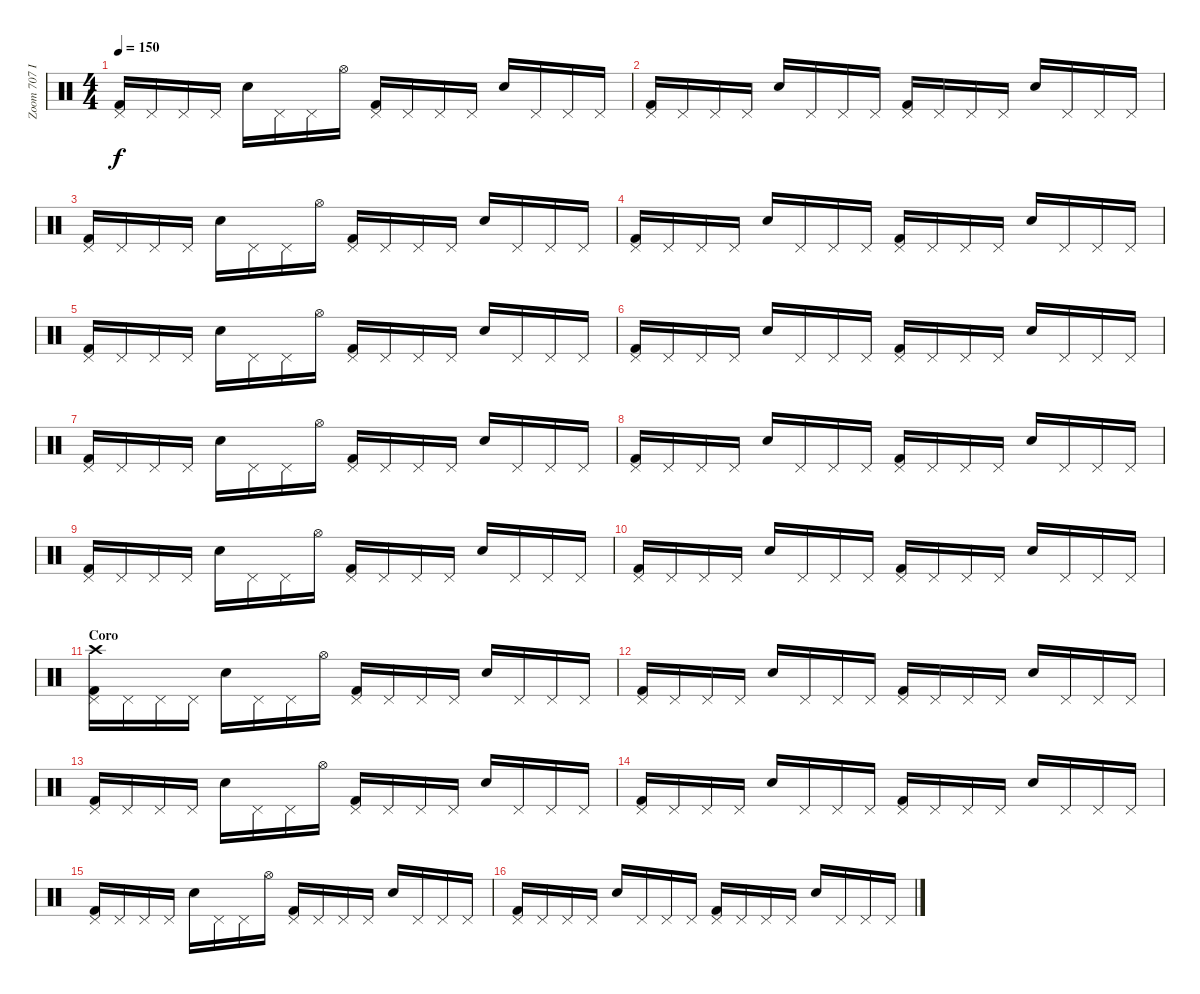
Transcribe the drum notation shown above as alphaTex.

\track ("Zoom 707 II" "Zoom 707 I") {instrument percussion}
\staff {score}
\articulation defaults
\ts (4 4)
\tempo 150
\clef neutral
\ks c
("Pedal Hi-Hat (hit)" "Kick (hit) 2").16{dy f} "Pedal Hi-Hat (hit)".16 "Pedal Hi-Hat (hit)".16 "Pedal Hi-Hat (hit)".16 "Snare (hit) 2".16 "Pedal Hi-Hat (hit)".16 "Pedal Hi-Hat (hit)".16 "Hi-Hat (open)".16 ("Pedal Hi-Hat (hit)" "Kick (hit) 2").16 "Pedal Hi-Hat (hit)".16 "Pedal Hi-Hat (hit)".16 "Pedal Hi-Hat (hit)".16 "Snare (hit) 2".16 "Pedal Hi-Hat (hit)".16 "Pedal Hi-Hat (hit)".16 "Pedal Hi-Hat (hit)".16 |
("Pedal Hi-Hat (hit)" "Kick (hit) 2").16 "Pedal Hi-Hat (hit)".16 "Pedal Hi-Hat (hit)".16 "Pedal Hi-Hat (hit)".16 "Snare (hit) 2".16 "Pedal Hi-Hat (hit)".16 "Pedal Hi-Hat (hit)".16 "Pedal Hi-Hat (hit)".16 ("Pedal Hi-Hat (hit)" "Kick (hit) 2").16 "Pedal Hi-Hat (hit)".16 "Pedal Hi-Hat (hit)".16 "Pedal Hi-Hat (hit)".16 "Snare (hit) 2".16 "Pedal Hi-Hat (hit)".16 "Pedal Hi-Hat (hit)".16 "Pedal Hi-Hat (hit)".16 |
("Pedal Hi-Hat (hit)" "Kick (hit) 2").16 "Pedal Hi-Hat (hit)".16 "Pedal Hi-Hat (hit)".16 "Pedal Hi-Hat (hit)".16 "Snare (hit) 2".16 "Pedal Hi-Hat (hit)".16 "Pedal Hi-Hat (hit)".16 "Hi-Hat (open)".16 ("Pedal Hi-Hat (hit)" "Kick (hit) 2").16 "Pedal Hi-Hat (hit)".16 "Pedal Hi-Hat (hit)".16 "Pedal Hi-Hat (hit)".16 "Snare (hit) 2".16 "Pedal Hi-Hat (hit)".16 "Pedal Hi-Hat (hit)".16 "Pedal Hi-Hat (hit)".16 |
("Pedal Hi-Hat (hit)" "Kick (hit) 2").16 "Pedal Hi-Hat (hit)".16 "Pedal Hi-Hat (hit)".16 "Pedal Hi-Hat (hit)".16 "Snare (hit) 2".16 "Pedal Hi-Hat (hit)".16 "Pedal Hi-Hat (hit)".16 "Pedal Hi-Hat (hit)".16 ("Pedal Hi-Hat (hit)" "Kick (hit) 2").16 "Pedal Hi-Hat (hit)".16 "Pedal Hi-Hat (hit)".16 "Pedal Hi-Hat (hit)".16 "Snare (hit) 2".16 "Pedal Hi-Hat (hit)".16 "Pedal Hi-Hat (hit)".16 "Pedal Hi-Hat (hit)".16 |
("Pedal Hi-Hat (hit)" "Kick (hit) 2").16 "Pedal Hi-Hat (hit)".16 "Pedal Hi-Hat (hit)".16 "Pedal Hi-Hat (hit)".16 "Snare (hit) 2".16 "Pedal Hi-Hat (hit)".16 "Pedal Hi-Hat (hit)".16 "Hi-Hat (open)".16 ("Pedal Hi-Hat (hit)" "Kick (hit) 2").16 "Pedal Hi-Hat (hit)".16 "Pedal Hi-Hat (hit)".16 "Pedal Hi-Hat (hit)".16 "Snare (hit) 2".16 "Pedal Hi-Hat (hit)".16 "Pedal Hi-Hat (hit)".16 "Pedal Hi-Hat (hit)".16 |
("Pedal Hi-Hat (hit)" "Kick (hit) 2").16 "Pedal Hi-Hat (hit)".16 "Pedal Hi-Hat (hit)".16 "Pedal Hi-Hat (hit)".16 "Snare (hit) 2".16 "Pedal Hi-Hat (hit)".16 "Pedal Hi-Hat (hit)".16 "Pedal Hi-Hat (hit)".16 ("Pedal Hi-Hat (hit)" "Kick (hit) 2").16 "Pedal Hi-Hat (hit)".16 "Pedal Hi-Hat (hit)".16 "Pedal Hi-Hat (hit)".16 "Snare (hit) 2".16 "Pedal Hi-Hat (hit)".16 "Pedal Hi-Hat (hit)".16 "Pedal Hi-Hat (hit)".16 |
("Pedal Hi-Hat (hit)" "Kick (hit) 2").16 "Pedal Hi-Hat (hit)".16 "Pedal Hi-Hat (hit)".16 "Pedal Hi-Hat (hit)".16 "Snare (hit) 2".16 "Pedal Hi-Hat (hit)".16 "Pedal Hi-Hat (hit)".16 "Hi-Hat (open)".16 ("Pedal Hi-Hat (hit)" "Kick (hit) 2").16 "Pedal Hi-Hat (hit)".16 "Pedal Hi-Hat (hit)".16 "Pedal Hi-Hat (hit)".16 "Snare (hit) 2".16 "Pedal Hi-Hat (hit)".16 "Pedal Hi-Hat (hit)".16 "Pedal Hi-Hat (hit)".16 |
("Pedal Hi-Hat (hit)" "Kick (hit) 2").16 "Pedal Hi-Hat (hit)".16 "Pedal Hi-Hat (hit)".16 "Pedal Hi-Hat (hit)".16 "Snare (hit) 2".16 "Pedal Hi-Hat (hit)".16 "Pedal Hi-Hat (hit)".16 "Pedal Hi-Hat (hit)".16 ("Pedal Hi-Hat (hit)" "Kick (hit) 2").16 "Pedal Hi-Hat (hit)".16 "Pedal Hi-Hat (hit)".16 "Pedal Hi-Hat (hit)".16 "Snare (hit) 2".16 "Pedal Hi-Hat (hit)".16 "Pedal Hi-Hat (hit)".16 "Pedal Hi-Hat (hit)".16 |
("Pedal Hi-Hat (hit)" "Kick (hit) 2").16 "Pedal Hi-Hat (hit)".16 "Pedal Hi-Hat (hit)".16 "Pedal Hi-Hat (hit)".16 "Snare (hit) 2".16 "Pedal Hi-Hat (hit)".16 "Pedal Hi-Hat (hit)".16 "Hi-Hat (open)".16 ("Pedal Hi-Hat (hit)" "Kick (hit) 2").16 "Pedal Hi-Hat (hit)".16 "Pedal Hi-Hat (hit)".16 "Pedal Hi-Hat (hit)".16 "Snare (hit) 2".16 "Pedal Hi-Hat (hit)".16 "Pedal Hi-Hat (hit)".16 "Pedal Hi-Hat (hit)".16 |
("Pedal Hi-Hat (hit)" "Kick (hit) 2").16 "Pedal Hi-Hat (hit)".16 "Pedal Hi-Hat (hit)".16 "Pedal Hi-Hat (hit)".16 "Snare (hit) 2".16 "Pedal Hi-Hat (hit)".16 "Pedal Hi-Hat (hit)".16 "Pedal Hi-Hat (hit)".16 ("Pedal Hi-Hat (hit)" "Kick (hit) 2").16 "Pedal Hi-Hat (hit)".16 "Pedal Hi-Hat (hit)".16 "Pedal Hi-Hat (hit)".16 "Snare (hit) 2".16 "Pedal Hi-Hat (hit)".16 "Pedal Hi-Hat (hit)".16 "Pedal Hi-Hat (hit)".16 |
\section ("" "Coro")
("Crash high (hit)" "Pedal Hi-Hat (hit)" "Kick (hit) 2").16 "Pedal Hi-Hat (hit)".16 "Pedal Hi-Hat (hit)".16 "Pedal Hi-Hat (hit)".16 "Snare (hit) 2".16 "Pedal Hi-Hat (hit)".16 "Pedal Hi-Hat (hit)".16 "Hi-Hat (open)".16 ("Pedal Hi-Hat (hit)" "Kick (hit) 2").16 "Pedal Hi-Hat (hit)".16 "Pedal Hi-Hat (hit)".16 "Pedal Hi-Hat (hit)".16 "Snare (hit) 2".16 "Pedal Hi-Hat (hit)".16 "Pedal Hi-Hat (hit)".16 "Pedal Hi-Hat (hit)".16 |
("Pedal Hi-Hat (hit)" "Kick (hit) 2").16 "Pedal Hi-Hat (hit)".16 "Pedal Hi-Hat (hit)".16 "Pedal Hi-Hat (hit)".16 "Snare (hit) 2".16 "Pedal Hi-Hat (hit)".16 "Pedal Hi-Hat (hit)".16 "Pedal Hi-Hat (hit)".16 ("Pedal Hi-Hat (hit)" "Kick (hit) 2").16 "Pedal Hi-Hat (hit)".16 "Pedal Hi-Hat (hit)".16 "Pedal Hi-Hat (hit)".16 "Snare (hit) 2".16 "Pedal Hi-Hat (hit)".16 "Pedal Hi-Hat (hit)".16 "Pedal Hi-Hat (hit)".16 |
("Pedal Hi-Hat (hit)" "Kick (hit) 2").16 "Pedal Hi-Hat (hit)".16 "Pedal Hi-Hat (hit)".16 "Pedal Hi-Hat (hit)".16 "Snare (hit) 2".16 "Pedal Hi-Hat (hit)".16 "Pedal Hi-Hat (hit)".16 "Hi-Hat (open)".16 ("Pedal Hi-Hat (hit)" "Kick (hit) 2").16 "Pedal Hi-Hat (hit)".16 "Pedal Hi-Hat (hit)".16 "Pedal Hi-Hat (hit)".16 "Snare (hit) 2".16 "Pedal Hi-Hat (hit)".16 "Pedal Hi-Hat (hit)".16 "Pedal Hi-Hat (hit)".16 |
("Pedal Hi-Hat (hit)" "Kick (hit) 2").16 "Pedal Hi-Hat (hit)".16 "Pedal Hi-Hat (hit)".16 "Pedal Hi-Hat (hit)".16 "Snare (hit) 2".16 "Pedal Hi-Hat (hit)".16 "Pedal Hi-Hat (hit)".16 "Pedal Hi-Hat (hit)".16 ("Pedal Hi-Hat (hit)" "Kick (hit) 2").16 "Pedal Hi-Hat (hit)".16 "Pedal Hi-Hat (hit)".16 "Pedal Hi-Hat (hit)".16 "Snare (hit) 2".16 "Pedal Hi-Hat (hit)".16 "Pedal Hi-Hat (hit)".16 "Pedal Hi-Hat (hit)".16 |
("Pedal Hi-Hat (hit)" "Kick (hit) 2").16 "Pedal Hi-Hat (hit)".16 "Pedal Hi-Hat (hit)".16 "Pedal Hi-Hat (hit)".16 "Snare (hit) 2".16 "Pedal Hi-Hat (hit)".16 "Pedal Hi-Hat (hit)".16 "Hi-Hat (open)".16 ("Pedal Hi-Hat (hit)" "Kick (hit) 2").16 "Pedal Hi-Hat (hit)".16 "Pedal Hi-Hat (hit)".16 "Pedal Hi-Hat (hit)".16 "Snare (hit) 2".16 "Pedal Hi-Hat (hit)".16 "Pedal Hi-Hat (hit)".16 "Pedal Hi-Hat (hit)".16 |
("Pedal Hi-Hat (hit)" "Kick (hit) 2").16 "Pedal Hi-Hat (hit)".16 "Pedal Hi-Hat (hit)".16 "Pedal Hi-Hat (hit)".16 "Snare (hit) 2".16 "Pedal Hi-Hat (hit)".16 "Pedal Hi-Hat (hit)".16 "Pedal Hi-Hat (hit)".16 ("Pedal Hi-Hat (hit)" "Kick (hit) 2").16 "Pedal Hi-Hat (hit)".16 "Pedal Hi-Hat (hit)".16 "Pedal Hi-Hat (hit)".16 "Snare (hit) 2".16 "Pedal Hi-Hat (hit)".16 "Pedal Hi-Hat (hit)".16 "Pedal Hi-Hat (hit)".16
